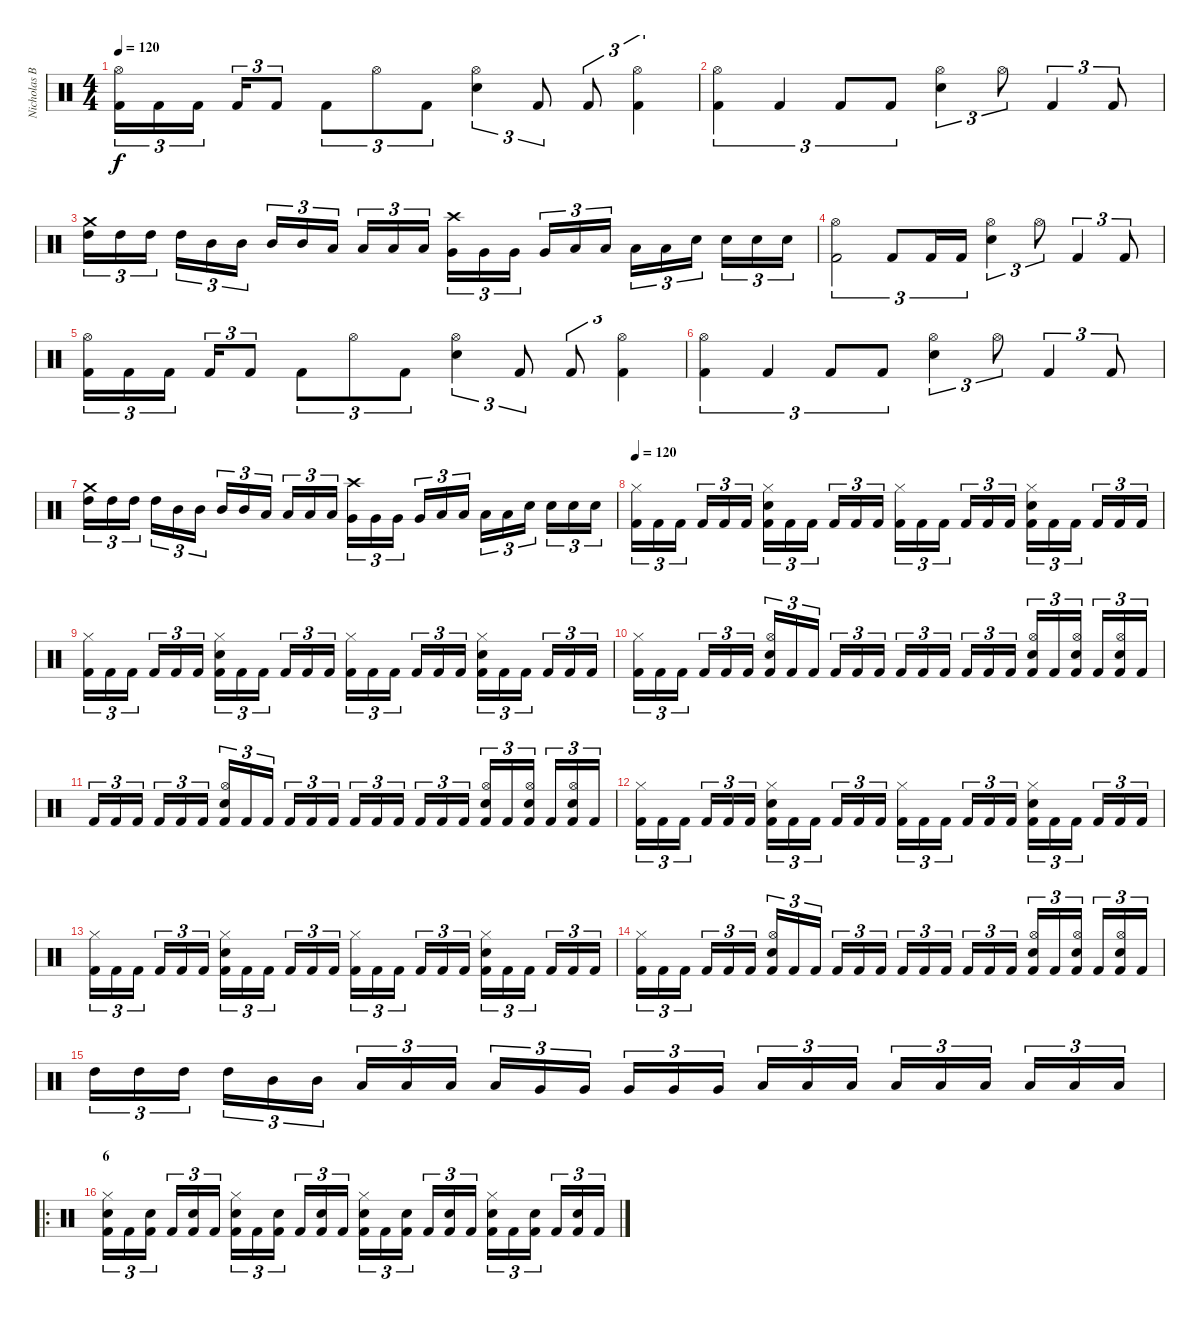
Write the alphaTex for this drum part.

\track ("Nicholas Barker" "Nicholas B") {instrument percussion}
\staff {score}
\articulation defaults
\ts (4 4)
\tempo 120
\clef neutral
\ks c
("Kick (hit) 2" "Hi-Hat (open)").16{tu (3 2) dy f} "Kick (hit) 2".16{tu (3 2)} "Kick (hit) 2".16{tu (3 2)} "Kick (hit) 2".16{tu (3 2)} "Kick (hit) 2".8{tu (3 2)} "Kick (hit) 2".8{tu (3 2)} "Hi-Hat (open)".8{tu (3 2)} "Kick (hit) 2".8{tu (3 2)} ("Snare (hit) 2" "Hi-Hat (open)").4{tu (3 2)} "Kick (hit) 2".8{tu (3 2)} "Kick (hit) 2".8{tu (3 2)} ("Kick (hit) 2" "Hi-Hat (open)").4{tu (3 2)} |
("Kick (hit) 2" "Hi-Hat (open)").4{tu (3 2)} "Kick (hit) 2".4{tu (3 2)} "Kick (hit) 2".8{tu (3 2)} "Kick (hit) 2".8{tu (3 2)} ("Snare (hit) 2" "Hi-Hat (open)").4{tu (3 2)} "Hi-Hat (open)".8{tu (3 2)} "Kick (hit) 2".4{tu (3 2)} "Kick (hit) 2".8{tu (3 2)} |
("High Tom (hit)" "Crash medium (hit)").16{tu (3 2)} "High Tom (hit)".16{tu (3 2)} "High Tom (hit)".16{tu (3 2)} "High Tom (hit)".16{tu (3 2)} "Mid Tom (hit)".16{tu (3 2)} "Mid Tom (hit)".16{tu (3 2)} "Mid Tom (hit)".16{tu (3 2)} "Mid Tom (hit)".16{tu (3 2)} "Low Tom (hit)".16{tu (3 2)} "Low Tom (hit)".16{tu (3 2)} "Low Tom (hit)".16{tu (3 2)} "Low Tom (hit)".16{tu (3 2)} ("Very Low Tom (hit)" "Crash high (hit)").16{tu (3 2)} "Very Low Tom (hit)".16{tu (3 2)} "Very Low Tom (hit)".16{tu (3 2)} "Very Low Tom (hit)".16{tu (3 2)} "Low Floor Tom (hit)".16{tu (3 2)} "Low Floor Tom (hit)".16{tu (3 2)} "Low Floor Tom (hit)".16{tu (3 2)} "Low Floor Tom (hit)".16{tu (3 2)} "Snare (hit) 2".16{tu (3 2)} "Snare (hit) 2".16{tu (3 2)} "Snare (hit) 2".16{tu (3 2)} "Snare (hit) 2".16{tu (3 2)} |
("Kick (hit) 2" "Hi-Hat (open)").2{tu (3 2)} "Kick (hit) 2".8{tu (3 2)} "Kick (hit) 2".16{tu (3 2)} "Kick (hit) 2".16{tu (3 2)} ("Snare (hit) 2" "Hi-Hat (open)").4{tu (3 2)} "Hi-Hat (open)".8{tu (3 2)} "Kick (hit) 2".4{tu (3 2)} "Kick (hit) 2".8{tu (3 2)} |
("Kick (hit) 2" "Hi-Hat (open)").16{tu (3 2)} "Kick (hit) 2".16{tu (3 2)} "Kick (hit) 2".16{tu (3 2)} "Kick (hit) 2".16{tu (3 2)} "Kick (hit) 2".8{tu (3 2)} "Kick (hit) 2".8{tu (3 2)} "Hi-Hat (open)".8{tu (3 2)} "Kick (hit) 2".8{tu (3 2)} ("Snare (hit) 2" "Hi-Hat (open)").4{tu (3 2)} "Kick (hit) 2".8{tu (3 2)} "Kick (hit) 2".8{tu (3 2)} ("Kick (hit) 2" "Hi-Hat (open)").4{tu (3 2)} |
("Kick (hit) 2" "Hi-Hat (open)").4{tu (3 2)} "Kick (hit) 2".4{tu (3 2)} "Kick (hit) 2".8{tu (3 2)} "Kick (hit) 2".8{tu (3 2)} ("Snare (hit) 2" "Hi-Hat (open)").4{tu (3 2)} "Hi-Hat (open)".8{tu (3 2)} "Kick (hit) 2".4{tu (3 2)} "Kick (hit) 2".8{tu (3 2)} |
("High Tom (hit)" "Crash medium (hit)").16{tu (3 2)} "High Tom (hit)".16{tu (3 2)} "High Tom (hit)".16{tu (3 2)} "High Tom (hit)".16{tu (3 2)} "Mid Tom (hit)".16{tu (3 2)} "Mid Tom (hit)".16{tu (3 2)} "Mid Tom (hit)".16{tu (3 2)} "Mid Tom (hit)".16{tu (3 2)} "Low Tom (hit)".16{tu (3 2)} "Low Tom (hit)".16{tu (3 2)} "Low Tom (hit)".16{tu (3 2)} "Low Tom (hit)".16{tu (3 2)} ("Very Low Tom (hit)" "Crash high (hit)").16{tu (3 2)} "Very Low Tom (hit)".16{tu (3 2)} "Very Low Tom (hit)".16{tu (3 2)} "Very Low Tom (hit)".16{tu (3 2)} "Low Floor Tom (hit)".16{tu (3 2)} "Low Floor Tom (hit)".16{tu (3 2)} "Low Floor Tom (hit)".16{tu (3 2)} "Low Floor Tom (hit)".16{tu (3 2)} "Snare (hit) 2".16{tu (3 2)} "Snare (hit) 2".16{tu (3 2)} "Snare (hit) 2".16{tu (3 2)} "Snare (hit) 2".16{tu (3 2)} |
\tempo 120
("Kick (hit) 2" "Hi-Hat (closed)").16{tu (3 2)} "Kick (hit) 2".16{tu (3 2)} "Kick (hit) 2".16{tu (3 2)} "Kick (hit) 2".16{tu (3 2)} "Kick (hit) 2".16{tu (3 2)} "Kick (hit) 2".16{tu (3 2)} ("Kick (hit) 2" "Snare (hit) 2" "Hi-Hat (closed)").16{tu (3 2)} "Kick (hit) 2".16{tu (3 2)} "Kick (hit) 2".16{tu (3 2)} "Kick (hit) 2".16{tu (3 2)} "Kick (hit) 2".16{tu (3 2)} "Kick (hit) 2".16{tu (3 2)} ("Kick (hit) 2" "Hi-Hat (closed)").16{tu (3 2)} "Kick (hit) 2".16{tu (3 2)} "Kick (hit) 2".16{tu (3 2)} "Kick (hit) 2".16{tu (3 2)} "Kick (hit) 2".16{tu (3 2)} "Kick (hit) 2".16{tu (3 2)} ("Kick (hit) 2" "Snare (hit) 2" "Hi-Hat (closed)").16{tu (3 2)} "Kick (hit) 2".16{tu (3 2)} "Kick (hit) 2".16{tu (3 2)} "Kick (hit) 2".16{tu (3 2)} "Kick (hit) 2".16{tu (3 2)} "Kick (hit) 2".16{tu (3 2)} |
("Kick (hit) 2" "Hi-Hat (closed)").16{tu (3 2)} "Kick (hit) 2".16{tu (3 2)} "Kick (hit) 2".16{tu (3 2)} "Kick (hit) 2".16{tu (3 2)} "Kick (hit) 2".16{tu (3 2)} "Kick (hit) 2".16{tu (3 2)} ("Kick (hit) 2" "Snare (hit) 2" "Hi-Hat (closed)").16{tu (3 2)} "Kick (hit) 2".16{tu (3 2)} "Kick (hit) 2".16{tu (3 2)} "Kick (hit) 2".16{tu (3 2)} "Kick (hit) 2".16{tu (3 2)} "Kick (hit) 2".16{tu (3 2)} ("Kick (hit) 2" "Hi-Hat (closed)").16{tu (3 2)} "Kick (hit) 2".16{tu (3 2)} "Kick (hit) 2".16{tu (3 2)} "Kick (hit) 2".16{tu (3 2)} "Kick (hit) 2".16{tu (3 2)} "Kick (hit) 2".16{tu (3 2)} ("Kick (hit) 2" "Snare (hit) 2" "Hi-Hat (closed)").16{tu (3 2)} "Kick (hit) 2".16{tu (3 2)} "Kick (hit) 2".16{tu (3 2)} "Kick (hit) 2".16{tu (3 2)} "Kick (hit) 2".16{tu (3 2)} "Kick (hit) 2".16{tu (3 2)} |
("Kick (hit) 2" "Hi-Hat (closed)").16{tu (3 2)} "Kick (hit) 2".16{tu (3 2)} "Kick (hit) 2".16{tu (3 2)} "Kick (hit) 2".16{tu (3 2)} "Kick (hit) 2".16{tu (3 2)} "Kick (hit) 2".16{tu (3 2)} ("Kick (hit) 2" "Snare (hit) 2" "Hi-Hat (open)").16{tu (3 2)} "Kick (hit) 2".16{tu (3 2)} "Kick (hit) 2".16{tu (3 2)} "Kick (hit) 2".16{tu (3 2)} "Kick (hit) 2".16{tu (3 2)} "Kick (hit) 2".16{tu (3 2)} "Kick (hit) 2".16{tu (3 2)} "Kick (hit) 2".16{tu (3 2)} "Kick (hit) 2".16{tu (3 2)} "Kick (hit) 2".16{tu (3 2)} "Kick (hit) 2".16{tu (3 2)} "Kick (hit) 2".16{tu (3 2)} ("Kick (hit) 2" "Snare (hit) 2" "Hi-Hat (open)").16{tu (3 2)} "Kick (hit) 2".16{tu (3 2)} ("Kick (hit) 2" "Snare (hit) 2" "Hi-Hat (open)").16{tu (3 2)} "Kick (hit) 2".16{tu (3 2)} ("Kick (hit) 2" "Snare (hit) 2" "Hi-Hat (open)").16{tu (3 2)} "Kick (hit) 2".16{tu (3 2)} |
"Kick (hit) 2".16{tu (3 2)} "Kick (hit) 2".16{tu (3 2)} "Kick (hit) 2".16{tu (3 2)} "Kick (hit) 2".16{tu (3 2)} "Kick (hit) 2".16{tu (3 2)} "Kick (hit) 2".16{tu (3 2)} ("Kick (hit) 2" "Snare (hit) 2" "Hi-Hat (open)").16{tu (3 2)} "Kick (hit) 2".16{tu (3 2)} "Kick (hit) 2".16{tu (3 2)} "Kick (hit) 2".16{tu (3 2)} "Kick (hit) 2".16{tu (3 2)} "Kick (hit) 2".16{tu (3 2)} "Kick (hit) 2".16{tu (3 2)} "Kick (hit) 2".16{tu (3 2)} "Kick (hit) 2".16{tu (3 2)} "Kick (hit) 2".16{tu (3 2)} "Kick (hit) 2".16{tu (3 2)} "Kick (hit) 2".16{tu (3 2)} ("Kick (hit) 2" "Snare (hit) 2" "Hi-Hat (open)").16{tu (3 2)} "Kick (hit) 2".16{tu (3 2)} ("Kick (hit) 2" "Snare (hit) 2" "Hi-Hat (open)").16{tu (3 2)} "Kick (hit) 2".16{tu (3 2)} ("Kick (hit) 2" "Snare (hit) 2" "Hi-Hat (open)").16{tu (3 2)} "Kick (hit) 2".16{tu (3 2)} |
("Kick (hit) 2" "Hi-Hat (closed)").16{tu (3 2)} "Kick (hit) 2".16{tu (3 2)} "Kick (hit) 2".16{tu (3 2)} "Kick (hit) 2".16{tu (3 2)} "Kick (hit) 2".16{tu (3 2)} "Kick (hit) 2".16{tu (3 2)} ("Kick (hit) 2" "Snare (hit) 2" "Hi-Hat (closed)").16{tu (3 2)} "Kick (hit) 2".16{tu (3 2)} "Kick (hit) 2".16{tu (3 2)} "Kick (hit) 2".16{tu (3 2)} "Kick (hit) 2".16{tu (3 2)} "Kick (hit) 2".16{tu (3 2)} ("Kick (hit) 2" "Hi-Hat (closed)").16{tu (3 2)} "Kick (hit) 2".16{tu (3 2)} "Kick (hit) 2".16{tu (3 2)} "Kick (hit) 2".16{tu (3 2)} "Kick (hit) 2".16{tu (3 2)} "Kick (hit) 2".16{tu (3 2)} ("Kick (hit) 2" "Snare (hit) 2" "Hi-Hat (closed)").16{tu (3 2)} "Kick (hit) 2".16{tu (3 2)} "Kick (hit) 2".16{tu (3 2)} "Kick (hit) 2".16{tu (3 2)} "Kick (hit) 2".16{tu (3 2)} "Kick (hit) 2".16{tu (3 2)} |
("Kick (hit) 2" "Hi-Hat (closed)").16{tu (3 2)} "Kick (hit) 2".16{tu (3 2)} "Kick (hit) 2".16{tu (3 2)} "Kick (hit) 2".16{tu (3 2)} "Kick (hit) 2".16{tu (3 2)} "Kick (hit) 2".16{tu (3 2)} ("Kick (hit) 2" "Snare (hit) 2" "Hi-Hat (closed)").16{tu (3 2)} "Kick (hit) 2".16{tu (3 2)} "Kick (hit) 2".16{tu (3 2)} "Kick (hit) 2".16{tu (3 2)} "Kick (hit) 2".16{tu (3 2)} "Kick (hit) 2".16{tu (3 2)} ("Kick (hit) 2" "Hi-Hat (closed)").16{tu (3 2)} "Kick (hit) 2".16{tu (3 2)} "Kick (hit) 2".16{tu (3 2)} "Kick (hit) 2".16{tu (3 2)} "Kick (hit) 2".16{tu (3 2)} "Kick (hit) 2".16{tu (3 2)} ("Kick (hit) 2" "Snare (hit) 2" "Hi-Hat (closed)").16{tu (3 2)} "Kick (hit) 2".16{tu (3 2)} "Kick (hit) 2".16{tu (3 2)} "Kick (hit) 2".16{tu (3 2)} "Kick (hit) 2".16{tu (3 2)} "Kick (hit) 2".16{tu (3 2)} |
("Kick (hit) 2" "Hi-Hat (closed)").16{tu (3 2)} "Kick (hit) 2".16{tu (3 2)} "Kick (hit) 2".16{tu (3 2)} "Kick (hit) 2".16{tu (3 2)} "Kick (hit) 2".16{tu (3 2)} "Kick (hit) 2".16{tu (3 2)} ("Kick (hit) 2" "Snare (hit) 2" "Hi-Hat (open)").16{tu (3 2)} "Kick (hit) 2".16{tu (3 2)} "Kick (hit) 2".16{tu (3 2)} "Kick (hit) 2".16{tu (3 2)} "Kick (hit) 2".16{tu (3 2)} "Kick (hit) 2".16{tu (3 2)} "Kick (hit) 2".16{tu (3 2)} "Kick (hit) 2".16{tu (3 2)} "Kick (hit) 2".16{tu (3 2)} "Kick (hit) 2".16{tu (3 2)} "Kick (hit) 2".16{tu (3 2)} "Kick (hit) 2".16{tu (3 2)} ("Kick (hit) 2" "Snare (hit) 2" "Hi-Hat (open)").16{tu (3 2)} "Kick (hit) 2".16{tu (3 2)} ("Kick (hit) 2" "Snare (hit) 2" "Hi-Hat (open)").16{tu (3 2)} "Kick (hit) 2".16{tu (3 2)} ("Kick (hit) 2" "Snare (hit) 2" "Hi-Hat (open)").16{tu (3 2)} "Kick (hit) 2".16{tu (3 2)} |
"High Tom (hit)".16{tu (3 2)} "High Tom (hit)".16{tu (3 2)} "High Tom (hit)".16{tu (3 2)} "High Tom (hit)".16{tu (3 2)} "Mid Tom (hit)".16{tu (3 2)} "Mid Tom (hit)".16{tu (3 2)} "Low Tom (hit)".16{tu (3 2)} "Low Tom (hit)".16{tu (3 2)} "Low Tom (hit)".16{tu (3 2)} "Low Tom (hit)".16{tu (3 2)} "Very Low Tom (hit)".16{tu (3 2)} "Very Low Tom (hit)".16{tu (3 2)} "Very Low Tom (hit)".16{tu (3 2)} "Very Low Tom (hit)".16{tu (3 2)} "Very Low Tom (hit)".16{tu (3 2)} "Low Floor Tom (hit)".16{tu (3 2)} "Low Floor Tom (hit)".16{tu (3 2)} "Low Floor Tom (hit)".16{tu (3 2)} "Low Floor Tom (hit)".16{tu (3 2)} "Low Floor Tom (hit)".16{tu (3 2)} "Low Floor Tom (hit)".16{tu (3 2)} "Low Floor Tom (hit)".16{tu (3 2)} "Low Floor Tom (hit)".16{tu (3 2)} "Low Floor Tom (hit)".16{tu (3 2)} |
\ro
\section ("" "6")
("Kick (hit) 2" "Snare (hit) 2" "Hi-Hat (closed)").16{tu (3 2)} "Kick (hit) 2".16{tu (3 2)} ("Kick (hit) 2" "Snare (hit) 2").16{tu (3 2)} "Kick (hit) 2".16{tu (3 2)} ("Kick (hit) 2" "Snare (hit) 2").16{tu (3 2)} "Kick (hit) 2".16{tu (3 2)} ("Kick (hit) 2" "Snare (hit) 2" "Hi-Hat (closed)").16{tu (3 2)} "Kick (hit) 2".16{tu (3 2)} ("Kick (hit) 2" "Snare (hit) 2").16{tu (3 2)} "Kick (hit) 2".16{tu (3 2)} ("Kick (hit) 2" "Snare (hit) 2").16{tu (3 2)} "Kick (hit) 2".16{tu (3 2)} ("Kick (hit) 2" "Snare (hit) 2" "Hi-Hat (closed)").16{tu (3 2)} "Kick (hit) 2".16{tu (3 2)} ("Kick (hit) 2" "Snare (hit) 2").16{tu (3 2)} "Kick (hit) 2".16{tu (3 2)} ("Kick (hit) 2" "Snare (hit) 2").16{tu (3 2)} "Kick (hit) 2".16{tu (3 2)} ("Kick (hit) 2" "Snare (hit) 2" "Hi-Hat (closed)").16{tu (3 2)} "Kick (hit) 2".16{tu (3 2)} ("Kick (hit) 2" "Snare (hit) 2").16{tu (3 2)} "Kick (hit) 2".16{tu (3 2)} ("Kick (hit) 2" "Snare (hit) 2").16{tu (3 2)} "Kick (hit) 2".16{tu (3 2)}
